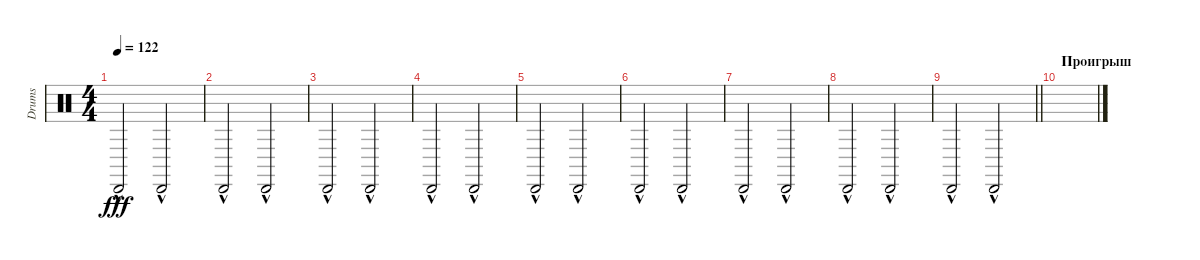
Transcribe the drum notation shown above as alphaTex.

\track ("Drums" "Drums") {instrument percussion}
\staff {score}
\articulation defaults
\ts (4 4)
\tempo 122
\clef neutral
\ks c "Cabasa (hit)"{hac}.2{dy fff} "Cabasa (hit)"{hac}.2
|
"Cabasa (hit)"{hac}.2 "Cabasa (hit)"{hac}.2 |
"Cabasa (hit)"{hac}.2 "Cabasa (hit)"{hac}.2 |
"Cabasa (hit)"{hac}.2 "Cabasa (hit)"{hac}.2 |
"Cabasa (hit)"{hac}.2 "Cabasa (hit)"{hac}.2 |
"Cabasa (hit)"{hac}.2 "Cabasa (hit)"{hac}.2 |
"Cabasa (hit)"{hac}.2 "Cabasa (hit)"{hac}.2 |
"Cabasa (hit)"{hac}.2 "Cabasa (hit)"{hac}.2 |
\barLineRight lightlight "Cabasa (hit)"{hac}.2 "Cabasa (hit)"{hac}.2
|
\section ("" "Проигрыш")
